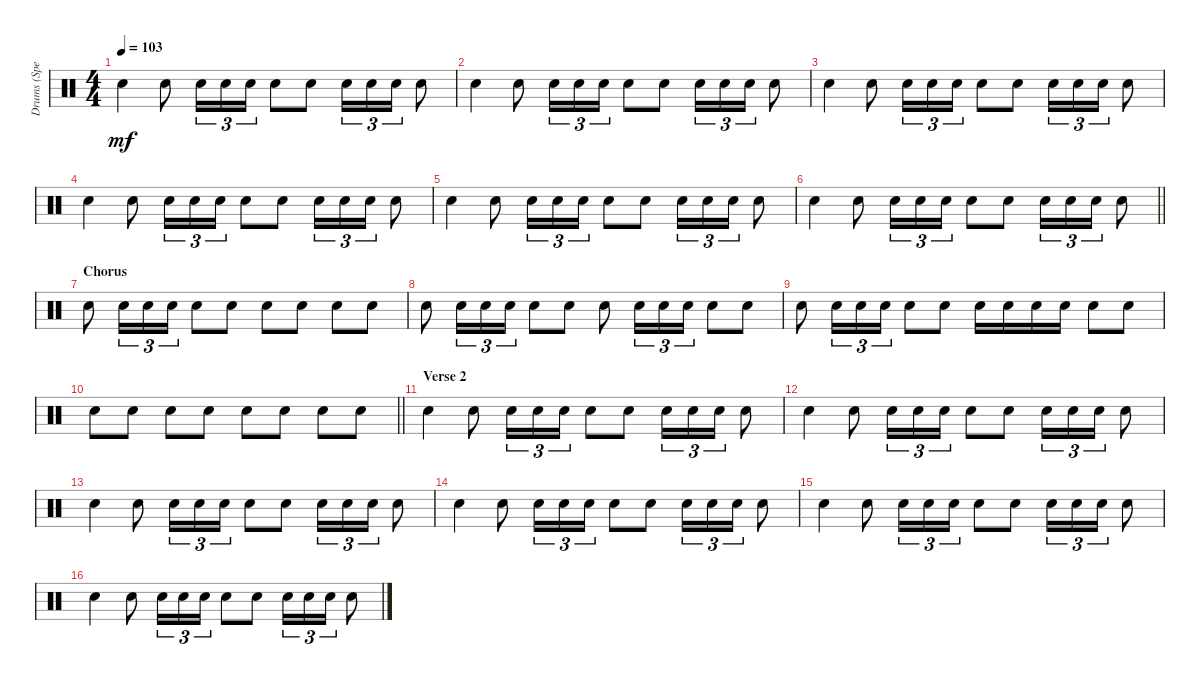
\track ("Drums (Spencer Dryden)" "Drums (Spe") {instrument percussion}
\staff {score}
\articulation defaults
\ts (4 4)
\tempo 103
\clef neutral
\ks c "Snare (hit) 2".4{dy mf} "Snare (hit) 2".8 "Snare (hit) 2".16{tu (3 2)} "Snare (hit) 2".16{tu (3 2)} "Snare (hit) 2".16{tu (3 2)} "Snare (hit) 2".8 "Snare (hit) 2".8 "Snare (hit) 2".16{tu (3 2)} "Snare (hit) 2".16{tu (3 2)} "Snare (hit) 2".16{tu (3 2)} "Snare (hit) 2".8
|
"Snare (hit) 2".4 "Snare (hit) 2".8 "Snare (hit) 2".16{tu (3 2)} "Snare (hit) 2".16{tu (3 2)} "Snare (hit) 2".16{tu (3 2)} "Snare (hit) 2".8 "Snare (hit) 2".8 "Snare (hit) 2".16{tu (3 2)} "Snare (hit) 2".16{tu (3 2)} "Snare (hit) 2".16{tu (3 2)} "Snare (hit) 2".8 |
"Snare (hit) 2".4 "Snare (hit) 2".8 "Snare (hit) 2".16{tu (3 2)} "Snare (hit) 2".16{tu (3 2)} "Snare (hit) 2".16{tu (3 2)} "Snare (hit) 2".8 "Snare (hit) 2".8 "Snare (hit) 2".16{tu (3 2)} "Snare (hit) 2".16{tu (3 2)} "Snare (hit) 2".16{tu (3 2)} "Snare (hit) 2".8 |
"Snare (hit) 2".4 "Snare (hit) 2".8 "Snare (hit) 2".16{tu (3 2)} "Snare (hit) 2".16{tu (3 2)} "Snare (hit) 2".16{tu (3 2)} "Snare (hit) 2".8 "Snare (hit) 2".8 "Snare (hit) 2".16{tu (3 2)} "Snare (hit) 2".16{tu (3 2)} "Snare (hit) 2".16{tu (3 2)} "Snare (hit) 2".8 |
"Snare (hit) 2".4 "Snare (hit) 2".8 "Snare (hit) 2".16{tu (3 2)} "Snare (hit) 2".16{tu (3 2)} "Snare (hit) 2".16{tu (3 2)} "Snare (hit) 2".8 "Snare (hit) 2".8 "Snare (hit) 2".16{tu (3 2)} "Snare (hit) 2".16{tu (3 2)} "Snare (hit) 2".16{tu (3 2)} "Snare (hit) 2".8 |
\barLineRight lightlight "Snare (hit) 2".4 "Snare (hit) 2".8 "Snare (hit) 2".16{tu (3 2)} "Snare (hit) 2".16{tu (3 2)} "Snare (hit) 2".16{tu (3 2)} "Snare (hit) 2".8 "Snare (hit) 2".8 "Snare (hit) 2".16{tu (3 2)} "Snare (hit) 2".16{tu (3 2)} "Snare (hit) 2".16{tu (3 2)} "Snare (hit) 2".8
|
\section ("" "Chorus")
"Snare (hit) 2".8 "Snare (hit) 2".16{tu (3 2)} "Snare (hit) 2".16{tu (3 2)} "Snare (hit) 2".16{tu (3 2)} "Snare (hit) 2".8 "Snare (hit) 2".8 "Snare (hit) 2".8 "Snare (hit) 2".8 "Snare (hit) 2".8 "Snare (hit) 2".8 |
"Snare (hit) 2".8 "Snare (hit) 2".16{tu (3 2)} "Snare (hit) 2".16{tu (3 2)} "Snare (hit) 2".16{tu (3 2)} "Snare (hit) 2".8 "Snare (hit) 2".8 "Snare (hit) 2".8 "Snare (hit) 2".16{tu (3 2)} "Snare (hit) 2".16{tu (3 2)} "Snare (hit) 2".16{tu (3 2)} "Snare (hit) 2".8 "Snare (hit) 2".8 |
"Snare (hit) 2".8 "Snare (hit) 2".16{tu (3 2)} "Snare (hit) 2".16{tu (3 2)} "Snare (hit) 2".16{tu (3 2)} "Snare (hit) 2".8 "Snare (hit) 2".8 "Snare (hit) 2".16 "Snare (hit) 2".16 "Snare (hit) 2".16 "Snare (hit) 2".16 "Snare (hit) 2".8 "Snare (hit) 2".8 |
\barLineRight lightlight "Snare (hit) 2".8 "Snare (hit) 2".8 "Snare (hit) 2".8 "Snare (hit) 2".8 "Snare (hit) 2".8 "Snare (hit) 2".8 "Snare (hit) 2".8 "Snare (hit) 2".8
|
\section ("" "Verse 2")
"Snare (hit) 2".4 "Snare (hit) 2".8 "Snare (hit) 2".16{tu (3 2)} "Snare (hit) 2".16{tu (3 2)} "Snare (hit) 2".16{tu (3 2)} "Snare (hit) 2".8 "Snare (hit) 2".8 "Snare (hit) 2".16{tu (3 2)} "Snare (hit) 2".16{tu (3 2)} "Snare (hit) 2".16{tu (3 2)} "Snare (hit) 2".8 |
"Snare (hit) 2".4 "Snare (hit) 2".8 "Snare (hit) 2".16{tu (3 2)} "Snare (hit) 2".16{tu (3 2)} "Snare (hit) 2".16{tu (3 2)} "Snare (hit) 2".8 "Snare (hit) 2".8 "Snare (hit) 2".16{tu (3 2)} "Snare (hit) 2".16{tu (3 2)} "Snare (hit) 2".16{tu (3 2)} "Snare (hit) 2".8 |
"Snare (hit) 2".4 "Snare (hit) 2".8 "Snare (hit) 2".16{tu (3 2)} "Snare (hit) 2".16{tu (3 2)} "Snare (hit) 2".16{tu (3 2)} "Snare (hit) 2".8 "Snare (hit) 2".8 "Snare (hit) 2".16{tu (3 2)} "Snare (hit) 2".16{tu (3 2)} "Snare (hit) 2".16{tu (3 2)} "Snare (hit) 2".8 |
"Snare (hit) 2".4 "Snare (hit) 2".8 "Snare (hit) 2".16{tu (3 2)} "Snare (hit) 2".16{tu (3 2)} "Snare (hit) 2".16{tu (3 2)} "Snare (hit) 2".8 "Snare (hit) 2".8 "Snare (hit) 2".16{tu (3 2)} "Snare (hit) 2".16{tu (3 2)} "Snare (hit) 2".16{tu (3 2)} "Snare (hit) 2".8 |
"Snare (hit) 2".4 "Snare (hit) 2".8 "Snare (hit) 2".16{tu (3 2)} "Snare (hit) 2".16{tu (3 2)} "Snare (hit) 2".16{tu (3 2)} "Snare (hit) 2".8 "Snare (hit) 2".8 "Snare (hit) 2".16{tu (3 2)} "Snare (hit) 2".16{tu (3 2)} "Snare (hit) 2".16{tu (3 2)} "Snare (hit) 2".8 |
"Snare (hit) 2".4 "Snare (hit) 2".8 "Snare (hit) 2".16{tu (3 2)} "Snare (hit) 2".16{tu (3 2)} "Snare (hit) 2".16{tu (3 2)} "Snare (hit) 2".8 "Snare (hit) 2".8 "Snare (hit) 2".16{tu (3 2)} "Snare (hit) 2".16{tu (3 2)} "Snare (hit) 2".16{tu (3 2)} "Snare (hit) 2".8
